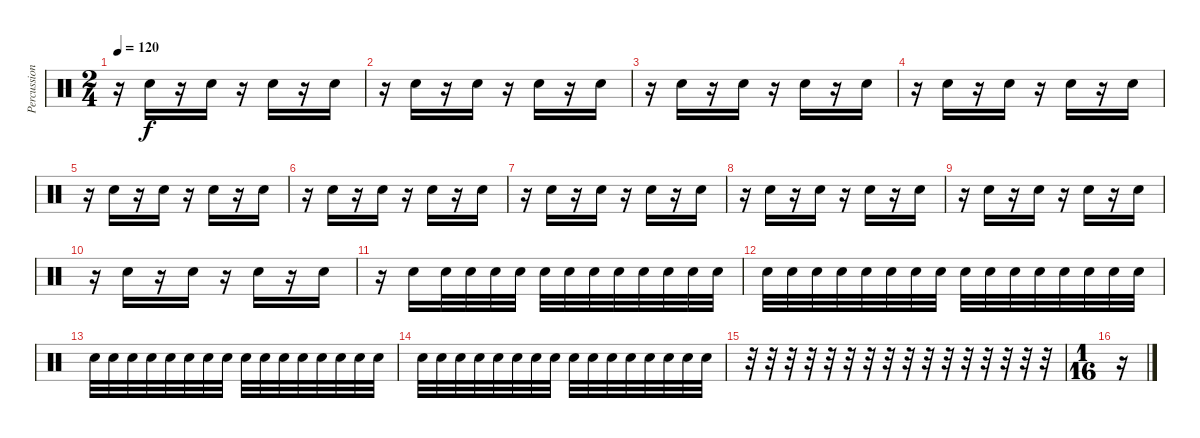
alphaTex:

\track ("Percussion 2" "Percussion") {instrument percussion}
\staff {score}
\articulation defaults
\ts (2 4)
\tempo 120
\clef neutral
\ks c
r.16{dy f} "Snare (hit) 2".16 r.16 "Snare (hit) 2".16 r.16 "Snare (hit) 2".16 r.16 "Snare (hit) 2".16 |
r.16 "Snare (hit) 2".16 r.16 "Snare (hit) 2".16 r.16 "Snare (hit) 2".16 r.16 "Snare (hit) 2".16 |
r.16 "Snare (hit) 2".16 r.16 "Snare (hit) 2".16 r.16 "Snare (hit) 2".16 r.16 "Snare (hit) 2".16 |
r.16 "Snare (hit) 2".16 r.16 "Snare (hit) 2".16 r.16 "Snare (hit) 2".16 r.16 "Snare (hit) 2".16 |
r.16 "Snare (hit) 2".16 r.16 "Snare (hit) 2".16 r.16 "Snare (hit) 2".16 r.16 "Snare (hit) 2".16 |
r.16 "Snare (hit) 2".16 r.16 "Snare (hit) 2".16 r.16 "Snare (hit) 2".16 r.16 "Snare (hit) 2".16 |
r.16 "Snare (hit) 2".16 r.16 "Snare (hit) 2".16 r.16 "Snare (hit) 2".16 r.16 "Snare (hit) 2".16 |
r.16 "Snare (hit) 2".16 r.16 "Snare (hit) 2".16 r.16 "Snare (hit) 2".16 r.16 "Snare (hit) 2".16 |
r.16 "Snare (hit) 2".16 r.16 "Snare (hit) 2".16 r.16 "Snare (hit) 2".16 r.16 "Snare (hit) 2".16 |
r.16 "Snare (hit) 2".16 r.16 "Snare (hit) 2".16 r.16 "Snare (hit) 2".16 r.16 "Snare (hit) 2".16 |
r.16 "Snare (hit) 2".16 "Snare (hit) 2".32 "Snare (hit) 2".32 "Snare (hit) 2".32 "Snare (hit) 2".32 "Snare (hit) 2".32 "Snare (hit) 2".32 "Snare (hit) 2".32 "Snare (hit) 2".32 "Snare (hit) 2".32 "Snare (hit) 2".32 "Snare (hit) 2".32 "Snare (hit) 2".32 |
"Snare (hit) 2".32 "Snare (hit) 2".32 "Snare (hit) 2".32 "Snare (hit) 2".32 "Snare (hit) 2".32 "Snare (hit) 2".32 "Snare (hit) 2".32 "Snare (hit) 2".32 "Snare (hit) 2".32 "Snare (hit) 2".32 "Snare (hit) 2".32 "Snare (hit) 2".32 "Snare (hit) 2".32 "Snare (hit) 2".32 "Snare (hit) 2".32 "Snare (hit) 2".32 |
"Snare (hit) 2".32 "Snare (hit) 2".32 "Snare (hit) 2".32 "Snare (hit) 2".32 "Snare (hit) 2".32 "Snare (hit) 2".32 "Snare (hit) 2".32 "Snare (hit) 2".32 "Snare (hit) 2".32 "Snare (hit) 2".32 "Snare (hit) 2".32 "Snare (hit) 2".32 "Snare (hit) 2".32 "Snare (hit) 2".32 "Snare (hit) 2".32 "Snare (hit) 2".32 |
"Snare (hit) 2".32 "Snare (hit) 2".32 "Snare (hit) 2".32 "Snare (hit) 2".32 "Snare (hit) 2".32 "Snare (hit) 2".32 "Snare (hit) 2".32 "Snare (hit) 2".32 "Snare (hit) 2".32 "Snare (hit) 2".32 "Snare (hit) 2".32 "Snare (hit) 2".32 "Snare (hit) 2".32 "Snare (hit) 2".32 "Snare (hit) 2".32 "Snare (hit) 2".32 |
r.32 r.32 r.32 r.32 r.32 r.32 r.32 r.32 r.32 r.32 r.32 r.32 r.32 r.32 r.32 r.32 |
\ts (1 16)
r.16
